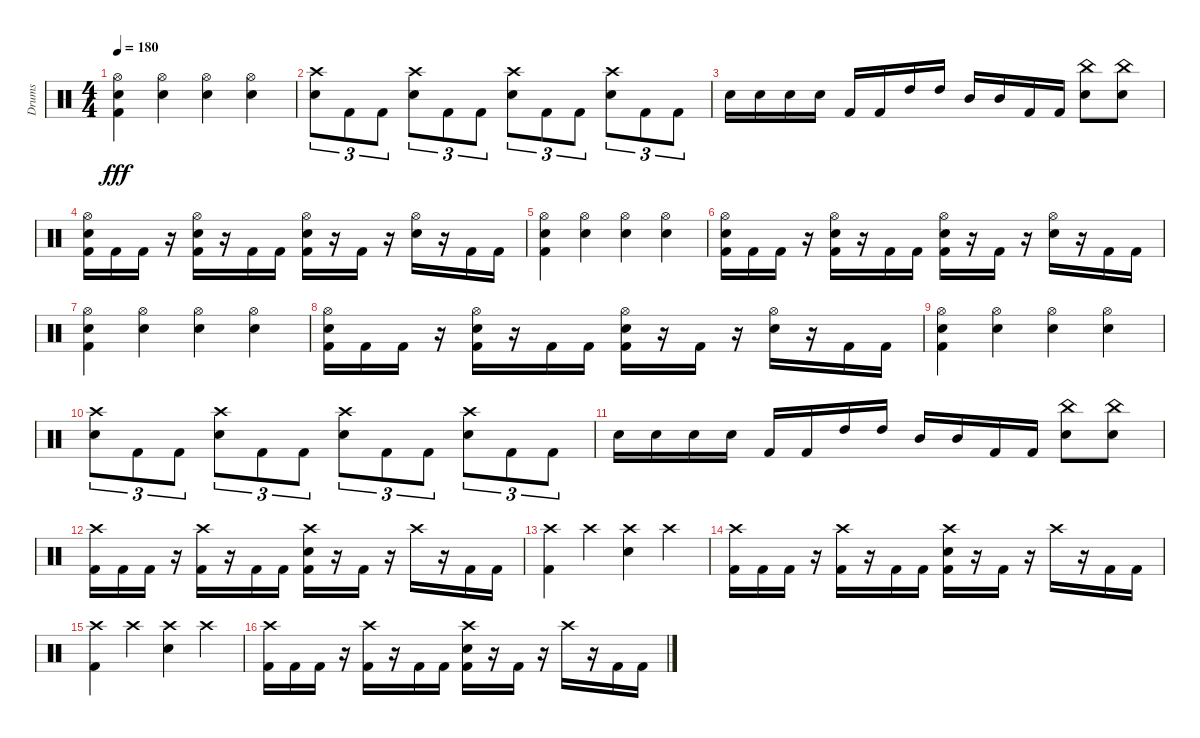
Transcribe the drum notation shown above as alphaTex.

\track ("Drums" "Drums") {instrument percussion}
\staff {score}
\articulation defaults
\ts (4 4)
\tempo 180
\clef neutral
\ks c
("Hi-Hat (open)" "Electric Snare (hit)" "Kick (hit) 2").4{dy fff} ("Hi-Hat (open)" "Electric Snare (hit)").4 ("Hi-Hat (open)" "Electric Snare (hit)").4 ("Hi-Hat (open)" "Electric Snare (hit)").4 |
("Crash high (hit)" "Electric Snare (hit)").8{tu (3 2)} "Kick (hit) 2".8{tu (3 2)} "Kick (hit) 2".8{tu (3 2)} ("Crash high (hit)" "Electric Snare (hit)").8{tu (3 2)} "Kick (hit) 2".8{tu (3 2)} "Kick (hit) 2".8{tu (3 2)} ("Crash high (hit)" "Electric Snare (hit)").8{tu (3 2)} "Kick (hit) 2".8{tu (3 2)} "Kick (hit) 2".8{tu (3 2)} ("Crash high (hit)" "Electric Snare (hit)").8{tu (3 2)} "Kick (hit) 2".8{tu (3 2)} "Kick (hit) 2".8{tu (3 2)} |
"Electric Snare (hit)".16 "Electric Snare (hit)".16 "Electric Snare (hit)".16 "Electric Snare (hit)".16 "Kick (hit) 2".16 "Kick (hit) 2".16 "High Tom (hit)".16 "High Tom (hit)".16 "Mid Tom (hit)".16 "Mid Tom (hit)".16 "Kick (hit) 2".16 "Kick (hit) 2".16 ("China (hit)" "Electric Snare (hit)").8 ("China (hit)" "Electric Snare (hit)").8 |
("Hi-Hat (open)" "Electric Snare (hit)" "Kick (hit) 2").16 "Kick (hit) 2".16 "Kick (hit) 2".16 r.16 ("Hi-Hat (open)" "Electric Snare (hit)" "Kick (hit) 2").16 r.16 "Kick (hit) 2".16 "Kick (hit) 2".16 ("Hi-Hat (open)" "Electric Snare (hit)" "Kick (hit) 2").16 r.16 "Kick (hit) 2".16 r.16 ("Hi-Hat (open)" "Electric Snare (hit)").16 r.16 "Kick (hit) 2".16 "Kick (hit) 2".16 |
("Hi-Hat (open)" "Electric Snare (hit)" "Kick (hit) 2").4 ("Hi-Hat (open)" "Electric Snare (hit)").4 ("Hi-Hat (open)" "Electric Snare (hit)").4 ("Hi-Hat (open)" "Electric Snare (hit)").4 |
("Hi-Hat (open)" "Electric Snare (hit)" "Kick (hit) 2").16 "Kick (hit) 2".16 "Kick (hit) 2".16 r.16 ("Hi-Hat (open)" "Electric Snare (hit)" "Kick (hit) 2").16 r.16 "Kick (hit) 2".16 "Kick (hit) 2".16 ("Hi-Hat (open)" "Electric Snare (hit)" "Kick (hit) 2").16 r.16 "Kick (hit) 2".16 r.16 ("Hi-Hat (open)" "Electric Snare (hit)").16 r.16 "Kick (hit) 2".16 "Kick (hit) 2".16 |
("Hi-Hat (open)" "Electric Snare (hit)" "Kick (hit) 2").4 ("Hi-Hat (open)" "Electric Snare (hit)").4 ("Hi-Hat (open)" "Electric Snare (hit)").4 ("Hi-Hat (open)" "Electric Snare (hit)").4 |
("Hi-Hat (open)" "Electric Snare (hit)" "Kick (hit) 2").16 "Kick (hit) 2".16 "Kick (hit) 2".16 r.16 ("Hi-Hat (open)" "Electric Snare (hit)" "Kick (hit) 2").16 r.16 "Kick (hit) 2".16 "Kick (hit) 2".16 ("Hi-Hat (open)" "Electric Snare (hit)" "Kick (hit) 2").16 r.16 "Kick (hit) 2".16 r.16 ("Hi-Hat (open)" "Electric Snare (hit)").16 r.16 "Kick (hit) 2".16 "Kick (hit) 2".16 |
("Hi-Hat (open)" "Electric Snare (hit)" "Kick (hit) 2").4 ("Hi-Hat (open)" "Electric Snare (hit)").4 ("Hi-Hat (open)" "Electric Snare (hit)").4 ("Hi-Hat (open)" "Electric Snare (hit)").4 |
("Crash high (hit)" "Electric Snare (hit)").8{tu (3 2)} "Kick (hit) 2".8{tu (3 2)} "Kick (hit) 2".8{tu (3 2)} ("Crash high (hit)" "Electric Snare (hit)").8{tu (3 2)} "Kick (hit) 2".8{tu (3 2)} "Kick (hit) 2".8{tu (3 2)} ("Crash high (hit)" "Electric Snare (hit)").8{tu (3 2)} "Kick (hit) 2".8{tu (3 2)} "Kick (hit) 2".8{tu (3 2)} ("Crash high (hit)" "Electric Snare (hit)").8{tu (3 2)} "Kick (hit) 2".8{tu (3 2)} "Kick (hit) 2".8{tu (3 2)} |
"Electric Snare (hit)".16 "Electric Snare (hit)".16 "Electric Snare (hit)".16 "Electric Snare (hit)".16 "Kick (hit) 2".16 "Kick (hit) 2".16 "High Tom (hit)".16 "High Tom (hit)".16 "Mid Tom (hit)".16 "Mid Tom (hit)".16 "Kick (hit) 2".16 "Kick (hit) 2".16 ("China (hit)" "Electric Snare (hit)").8 ("China (hit)" "Electric Snare (hit)").8 |
("Crash high (hit)" "Kick (hit) 2").16 "Kick (hit) 2".16 "Kick (hit) 2".16 r.16 ("Crash high (hit)" "Kick (hit) 2").16 r.16 "Kick (hit) 2".16 "Kick (hit) 2".16 ("Crash high (hit)" "Electric Snare (hit)" "Kick (hit) 2").16 r.16 "Kick (hit) 2".16 r.16 "Crash high (hit)".16 r.16 "Kick (hit) 2".16 "Kick (hit) 2".16 |
("Crash high (hit)" "Kick (hit) 2").4 "Crash high (hit)".4 ("Crash high (hit)" "Electric Snare (hit)").4 "Crash high (hit)".4 |
("Crash high (hit)" "Kick (hit) 2").16 "Kick (hit) 2".16 "Kick (hit) 2".16 r.16 ("Crash high (hit)" "Kick (hit) 2").16 r.16 "Kick (hit) 2".16 "Kick (hit) 2".16 ("Crash high (hit)" "Electric Snare (hit)" "Kick (hit) 2").16 r.16 "Kick (hit) 2".16 r.16 "Crash high (hit)".16 r.16 "Kick (hit) 2".16 "Kick (hit) 2".16 |
("Crash high (hit)" "Kick (hit) 2").4 "Crash high (hit)".4 ("Crash high (hit)" "Electric Snare (hit)").4 "Crash high (hit)".4 |
("Crash high (hit)" "Kick (hit) 2").16 "Kick (hit) 2".16 "Kick (hit) 2".16 r.16 ("Crash high (hit)" "Kick (hit) 2").16 r.16 "Kick (hit) 2".16 "Kick (hit) 2".16 ("Crash high (hit)" "Electric Snare (hit)" "Kick (hit) 2").16 r.16 "Kick (hit) 2".16 r.16 "Crash high (hit)".16 r.16 "Kick (hit) 2".16 "Kick (hit) 2".16
